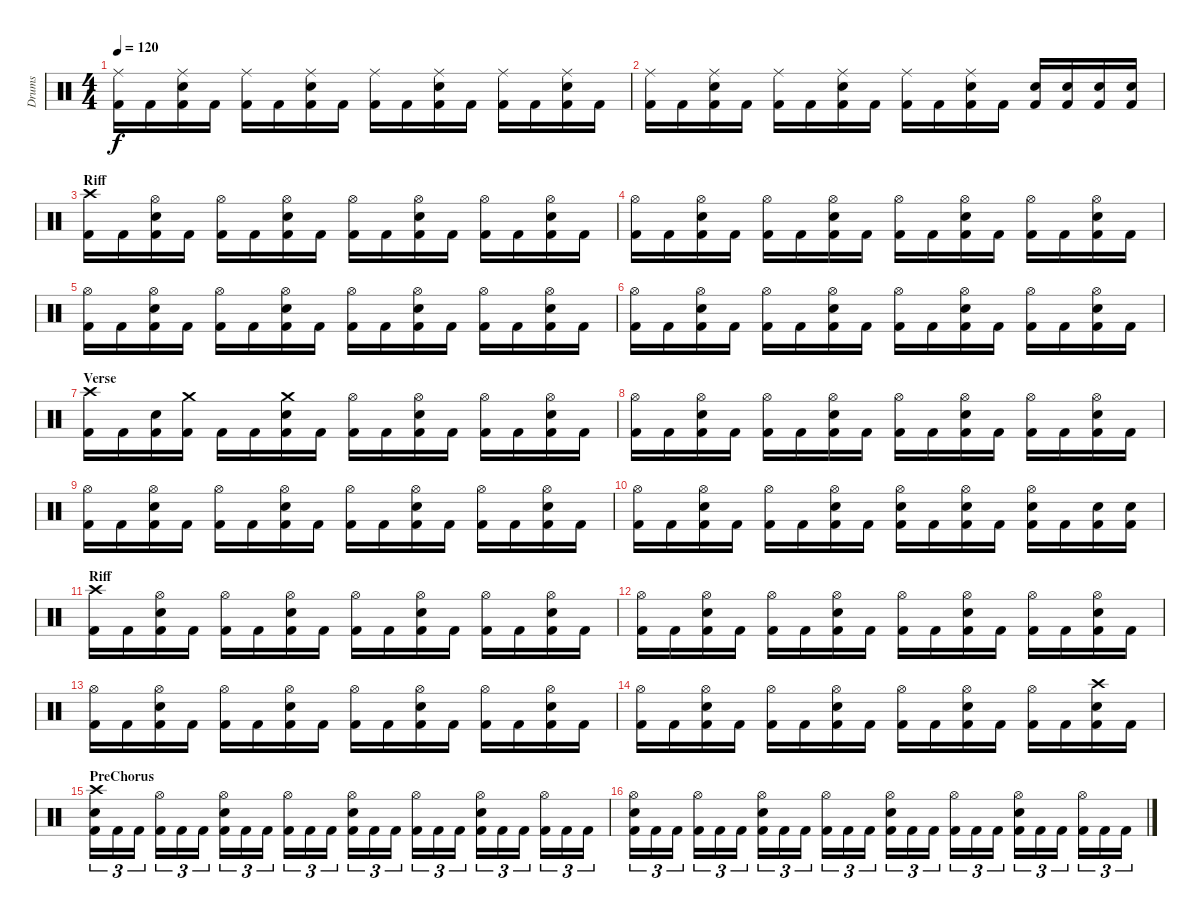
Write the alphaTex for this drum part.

\track ("Drums" "Drums") {instrument percussion}
\staff {score}
\articulation defaults
\ts (4 4)
\tempo 120
\clef neutral
\ks c
("Ride (middle)" "Kick (hit) 2").16{dy f} "Kick (hit) 2".16 ("Ride (middle)" "Snare (hit) 2" "Kick (hit) 2").16 "Kick (hit) 2".16 ("Ride (middle)" "Kick (hit) 2").16 "Kick (hit) 2".16 ("Ride (middle)" "Snare (hit) 2" "Kick (hit) 2").16 "Kick (hit) 2".16 ("Ride (middle)" "Kick (hit) 2").16 "Kick (hit) 2".16 ("Ride (middle)" "Snare (hit) 2" "Kick (hit) 2").16 "Kick (hit) 2".16 ("Ride (middle)" "Kick (hit) 2").16 "Kick (hit) 2".16 ("Ride (middle)" "Snare (hit) 2" "Kick (hit) 2").16 "Kick (hit) 2".16 |
("Ride (middle)" "Kick (hit) 2").16 "Kick (hit) 2".16 ("Ride (middle)" "Snare (hit) 2" "Kick (hit) 2").16 "Kick (hit) 2".16 ("Ride (middle)" "Kick (hit) 2").16 "Kick (hit) 2".16 ("Ride (middle)" "Snare (hit) 2" "Kick (hit) 2").16 "Kick (hit) 2".16 ("Ride (middle)" "Kick (hit) 2").16 "Kick (hit) 2".16 ("Ride (middle)" "Snare (hit) 2" "Kick (hit) 2").16 "Kick (hit) 2".16 ("Snare (hit) 2" "Kick (hit) 2").16 ("Snare (hit) 2" "Kick (hit) 2").16 ("Snare (hit) 2" "Kick (hit) 2").16 ("Snare (hit) 2" "Kick (hit) 2").16 |
\section ("" "Riff")
("Crash high (hit)" "Kick (hit) 2").16 "Kick (hit) 2".16 ("Hi-Hat (open)" "Snare (hit) 2" "Kick (hit) 2").16 "Kick (hit) 2".16 ("Hi-Hat (open)" "Kick (hit) 2").16 "Kick (hit) 2".16 ("Hi-Hat (open)" "Snare (hit) 2" "Kick (hit) 2").16 "Kick (hit) 2".16 ("Hi-Hat (open)" "Kick (hit) 2").16 "Kick (hit) 2".16 ("Hi-Hat (open)" "Snare (hit) 2" "Kick (hit) 2").16 "Kick (hit) 2".16 ("Hi-Hat (open)" "Kick (hit) 2").16 "Kick (hit) 2".16 ("Hi-Hat (open)" "Snare (hit) 2" "Kick (hit) 2").16 "Kick (hit) 2".16 |
("Hi-Hat (open)" "Kick (hit) 2").16 "Kick (hit) 2".16 ("Hi-Hat (open)" "Snare (hit) 2" "Kick (hit) 2").16 "Kick (hit) 2".16 ("Hi-Hat (open)" "Kick (hit) 2").16 "Kick (hit) 2".16 ("Hi-Hat (open)" "Snare (hit) 2" "Kick (hit) 2").16 "Kick (hit) 2".16 ("Hi-Hat (open)" "Kick (hit) 2").16 "Kick (hit) 2".16 ("Hi-Hat (open)" "Snare (hit) 2" "Kick (hit) 2").16 "Kick (hit) 2".16 ("Hi-Hat (open)" "Kick (hit) 2").16 "Kick (hit) 2".16 ("Hi-Hat (open)" "Snare (hit) 2" "Kick (hit) 2").16 "Kick (hit) 2".16 |
("Hi-Hat (open)" "Kick (hit) 2").16 "Kick (hit) 2".16 ("Hi-Hat (open)" "Snare (hit) 2" "Kick (hit) 2").16 "Kick (hit) 2".16 ("Hi-Hat (open)" "Kick (hit) 2").16 "Kick (hit) 2".16 ("Hi-Hat (open)" "Snare (hit) 2" "Kick (hit) 2").16 "Kick (hit) 2".16 ("Hi-Hat (open)" "Kick (hit) 2").16 "Kick (hit) 2".16 ("Hi-Hat (open)" "Snare (hit) 2" "Kick (hit) 2").16 "Kick (hit) 2".16 ("Hi-Hat (open)" "Kick (hit) 2").16 "Kick (hit) 2".16 ("Hi-Hat (open)" "Snare (hit) 2" "Kick (hit) 2").16 "Kick (hit) 2".16 |
("Hi-Hat (open)" "Kick (hit) 2").16 "Kick (hit) 2".16 ("Hi-Hat (open)" "Snare (hit) 2" "Kick (hit) 2").16 "Kick (hit) 2".16 ("Hi-Hat (open)" "Kick (hit) 2").16 "Kick (hit) 2".16 ("Hi-Hat (open)" "Snare (hit) 2" "Kick (hit) 2").16 "Kick (hit) 2".16 ("Hi-Hat (open)" "Kick (hit) 2").16 "Kick (hit) 2".16 ("Hi-Hat (open)" "Snare (hit) 2" "Kick (hit) 2").16 "Kick (hit) 2".16 ("Hi-Hat (open)" "Kick (hit) 2").16 "Kick (hit) 2".16 ("Hi-Hat (open)" "Snare (hit) 2" "Kick (hit) 2").16 "Kick (hit) 2".16 |
\section ("" "Verse")
("Crash high (hit)" "Kick (hit) 2").16 "Kick (hit) 2".16 ("Snare (hit) 2" "Kick (hit) 2").16 ("Crash medium (hit)" "Kick (hit) 2").16 "Kick (hit) 2".16 "Kick (hit) 2".16 ("Crash medium (hit)" "Snare (hit) 2" "Kick (hit) 2").16 "Kick (hit) 2".16 ("Hi-Hat (open)" "Kick (hit) 2").16 "Kick (hit) 2".16 ("Hi-Hat (open)" "Snare (hit) 2" "Kick (hit) 2").16 "Kick (hit) 2".16 ("Hi-Hat (open)" "Kick (hit) 2").16 "Kick (hit) 2".16 ("Hi-Hat (open)" "Snare (hit) 2" "Kick (hit) 2").16 "Kick (hit) 2".16 |
("Hi-Hat (open)" "Kick (hit) 2").16 "Kick (hit) 2".16 ("Hi-Hat (open)" "Snare (hit) 2" "Kick (hit) 2").16 "Kick (hit) 2".16 ("Hi-Hat (open)" "Kick (hit) 2").16 "Kick (hit) 2".16 ("Hi-Hat (open)" "Snare (hit) 2" "Kick (hit) 2").16 "Kick (hit) 2".16 ("Hi-Hat (open)" "Kick (hit) 2").16 "Kick (hit) 2".16 ("Hi-Hat (open)" "Snare (hit) 2" "Kick (hit) 2").16 "Kick (hit) 2".16 ("Hi-Hat (open)" "Kick (hit) 2").16 "Kick (hit) 2".16 ("Hi-Hat (open)" "Snare (hit) 2" "Kick (hit) 2").16 "Kick (hit) 2".16 |
("Hi-Hat (open)" "Kick (hit) 2").16 "Kick (hit) 2".16 ("Hi-Hat (open)" "Snare (hit) 2" "Kick (hit) 2").16 "Kick (hit) 2".16 ("Hi-Hat (open)" "Kick (hit) 2").16 "Kick (hit) 2".16 ("Hi-Hat (open)" "Snare (hit) 2" "Kick (hit) 2").16 "Kick (hit) 2".16 ("Hi-Hat (open)" "Kick (hit) 2").16 "Kick (hit) 2".16 ("Hi-Hat (open)" "Snare (hit) 2" "Kick (hit) 2").16 "Kick (hit) 2".16 ("Hi-Hat (open)" "Kick (hit) 2").16 "Kick (hit) 2".16 ("Hi-Hat (open)" "Snare (hit) 2" "Kick (hit) 2").16 "Kick (hit) 2".16 |
("Hi-Hat (open)" "Kick (hit) 2").16 "Kick (hit) 2".16 ("Hi-Hat (open)" "Snare (hit) 2" "Kick (hit) 2").16 "Kick (hit) 2".16 ("Hi-Hat (open)" "Kick (hit) 2").16 "Kick (hit) 2".16 ("Hi-Hat (open)" "Snare (hit) 2" "Kick (hit) 2").16 "Kick (hit) 2".16 ("Hi-Hat (open)" "Snare (hit) 2" "Kick (hit) 2").16 "Kick (hit) 2".16 ("Hi-Hat (open)" "Snare (hit) 2" "Kick (hit) 2").16 "Kick (hit) 2".16 ("Hi-Hat (open)" "Snare (hit) 2" "Kick (hit) 2").16 "Kick (hit) 2".16 ("Snare (hit) 2" "Kick (hit) 2").16 ("Snare (hit) 2" "Kick (hit) 2").16 |
\section ("" "Riff")
("Crash high (hit)" "Kick (hit) 2").16 "Kick (hit) 2".16 ("Hi-Hat (open)" "Snare (hit) 2" "Kick (hit) 2").16 "Kick (hit) 2".16 ("Hi-Hat (open)" "Kick (hit) 2").16 "Kick (hit) 2".16 ("Hi-Hat (open)" "Snare (hit) 2" "Kick (hit) 2").16 "Kick (hit) 2".16 ("Hi-Hat (open)" "Kick (hit) 2").16 "Kick (hit) 2".16 ("Hi-Hat (open)" "Snare (hit) 2" "Kick (hit) 2").16 "Kick (hit) 2".16 ("Hi-Hat (open)" "Kick (hit) 2").16 "Kick (hit) 2".16 ("Hi-Hat (open)" "Snare (hit) 2" "Kick (hit) 2").16 "Kick (hit) 2".16 |
("Hi-Hat (open)" "Kick (hit) 2").16 "Kick (hit) 2".16 ("Hi-Hat (open)" "Snare (hit) 2" "Kick (hit) 2").16 "Kick (hit) 2".16 ("Hi-Hat (open)" "Kick (hit) 2").16 "Kick (hit) 2".16 ("Hi-Hat (open)" "Snare (hit) 2" "Kick (hit) 2").16 "Kick (hit) 2".16 ("Hi-Hat (open)" "Kick (hit) 2").16 "Kick (hit) 2".16 ("Hi-Hat (open)" "Snare (hit) 2" "Kick (hit) 2").16 "Kick (hit) 2".16 ("Hi-Hat (open)" "Kick (hit) 2").16 "Kick (hit) 2".16 ("Hi-Hat (open)" "Snare (hit) 2" "Kick (hit) 2").16 "Kick (hit) 2".16 |
("Hi-Hat (open)" "Kick (hit) 2").16 "Kick (hit) 2".16 ("Hi-Hat (open)" "Snare (hit) 2" "Kick (hit) 2").16 "Kick (hit) 2".16 ("Hi-Hat (open)" "Kick (hit) 2").16 "Kick (hit) 2".16 ("Hi-Hat (open)" "Snare (hit) 2" "Kick (hit) 2").16 "Kick (hit) 2".16 ("Hi-Hat (open)" "Kick (hit) 2").16 "Kick (hit) 2".16 ("Hi-Hat (open)" "Snare (hit) 2" "Kick (hit) 2").16 "Kick (hit) 2".16 ("Hi-Hat (open)" "Kick (hit) 2").16 "Kick (hit) 2".16 ("Hi-Hat (open)" "Snare (hit) 2" "Kick (hit) 2").16 "Kick (hit) 2".16 |
("Hi-Hat (open)" "Kick (hit) 2").16 "Kick (hit) 2".16 ("Hi-Hat (open)" "Snare (hit) 2" "Kick (hit) 2").16 "Kick (hit) 2".16 ("Hi-Hat (open)" "Kick (hit) 2").16 "Kick (hit) 2".16 ("Hi-Hat (open)" "Snare (hit) 2" "Kick (hit) 2").16 "Kick (hit) 2".16 ("Hi-Hat (open)" "Kick (hit) 2").16 "Kick (hit) 2".16 ("Hi-Hat (open)" "Snare (hit) 2" "Kick (hit) 2").16 "Kick (hit) 2".16 ("Hi-Hat (open)" "Kick (hit) 2").16 "Kick (hit) 2".16 ("Crash high (hit)" "Snare (hit) 2" "Kick (hit) 2").16 "Kick (hit) 2".16 |
\section ("" "PreChorus")
("Crash high (hit)" "Snare (hit) 2" "Kick (hit) 2").16{tu (3 2)} "Kick (hit) 2".16{tu (3 2)} "Kick (hit) 2".16{tu (3 2)} ("Hi-Hat (open)" "Kick (hit) 2").16{tu (3 2)} "Kick (hit) 2".16{tu (3 2)} "Kick (hit) 2".16{tu (3 2)} ("Hi-Hat (open)" "Snare (hit) 2" "Kick (hit) 2").16{tu (3 2)} "Kick (hit) 2".16{tu (3 2)} "Kick (hit) 2".16{tu (3 2)} ("Hi-Hat (open)" "Kick (hit) 2").16{tu (3 2)} "Kick (hit) 2".16{tu (3 2)} "Kick (hit) 2".16{tu (3 2)} ("Hi-Hat (open)" "Snare (hit) 2" "Kick (hit) 2").16{tu (3 2)} "Kick (hit) 2".16{tu (3 2)} "Kick (hit) 2".16{tu (3 2)} ("Hi-Hat (open)" "Kick (hit) 2").16{tu (3 2)} "Kick (hit) 2".16{tu (3 2)} "Kick (hit) 2".16{tu (3 2)} ("Hi-Hat (open)" "Snare (hit) 2" "Kick (hit) 2").16{tu (3 2)} "Kick (hit) 2".16{tu (3 2)} "Kick (hit) 2".16{tu (3 2)} ("Hi-Hat (open)" "Kick (hit) 2").16{tu (3 2)} "Kick (hit) 2".16{tu (3 2)} "Kick (hit) 2".16{tu (3 2)} |
("Hi-Hat (open)" "Snare (hit) 2" "Kick (hit) 2").16{tu (3 2)} "Kick (hit) 2".16{tu (3 2)} "Kick (hit) 2".16{tu (3 2)} ("Hi-Hat (open)" "Kick (hit) 2").16{tu (3 2)} "Kick (hit) 2".16{tu (3 2)} "Kick (hit) 2".16{tu (3 2)} ("Hi-Hat (open)" "Snare (hit) 2" "Kick (hit) 2").16{tu (3 2)} "Kick (hit) 2".16{tu (3 2)} "Kick (hit) 2".16{tu (3 2)} ("Hi-Hat (open)" "Kick (hit) 2").16{tu (3 2)} "Kick (hit) 2".16{tu (3 2)} "Kick (hit) 2".16{tu (3 2)} ("Hi-Hat (open)" "Snare (hit) 2" "Kick (hit) 2").16{tu (3 2)} "Kick (hit) 2".16{tu (3 2)} "Kick (hit) 2".16{tu (3 2)} ("Hi-Hat (open)" "Kick (hit) 2").16{tu (3 2)} "Kick (hit) 2".16{tu (3 2)} "Kick (hit) 2".16{tu (3 2)} ("Hi-Hat (open)" "Snare (hit) 2" "Kick (hit) 2").16{tu (3 2)} "Kick (hit) 2".16{tu (3 2)} "Kick (hit) 2".16{tu (3 2)} ("Hi-Hat (open)" "Kick (hit) 2").16{tu (3 2)} "Kick (hit) 2".16{tu (3 2)} "Kick (hit) 2".16{tu (3 2)}
